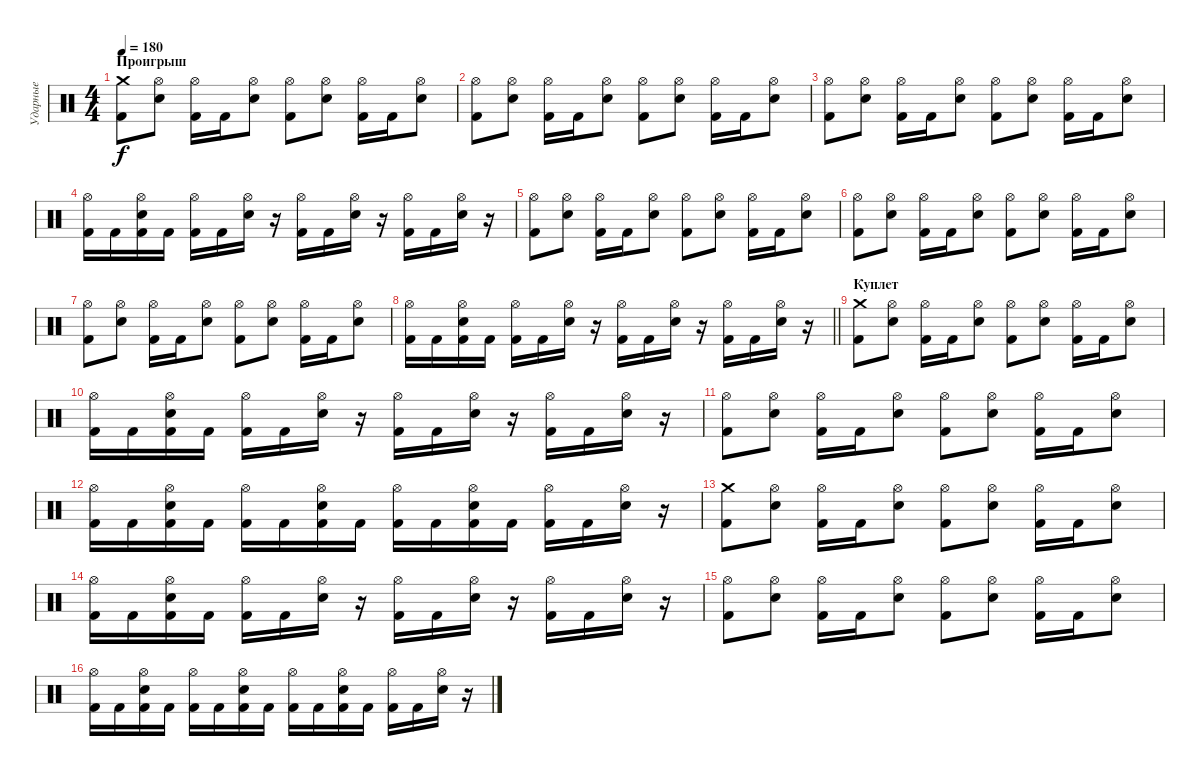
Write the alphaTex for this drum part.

\track ("Ударные" "Ударные") {instrument percussion}
\staff {score}
\articulation defaults
\ts (4 4)
\section ("" "Проигрыш")
\tempo 180
\clef neutral
\ks c
("Crash medium (hit)" "Kick (hit) 2").8{dy f} ("Hi-Hat (open)" "Electric Snare (hit)").8 ("Hi-Hat (open)" "Kick (hit) 2").16 "Kick (hit) 2".16 ("Hi-Hat (open)" "Electric Snare (hit)").8 ("Hi-Hat (open)" "Kick (hit) 2").8 ("Hi-Hat (open)" "Electric Snare (hit)").8 ("Hi-Hat (open)" "Kick (hit) 2").16 "Kick (hit) 2".16 ("Hi-Hat (open)" "Electric Snare (hit)").8 |
("Hi-Hat (open)" "Kick (hit) 2").8 ("Hi-Hat (open)" "Electric Snare (hit)").8 ("Hi-Hat (open)" "Kick (hit) 2").16 "Kick (hit) 2".16 ("Hi-Hat (open)" "Electric Snare (hit)").8 ("Hi-Hat (open)" "Kick (hit) 2").8 ("Hi-Hat (open)" "Electric Snare (hit)").8 ("Hi-Hat (open)" "Kick (hit) 2").16 "Kick (hit) 2".16 ("Hi-Hat (open)" "Electric Snare (hit)").8 |
("Hi-Hat (open)" "Kick (hit) 2").8 ("Hi-Hat (open)" "Electric Snare (hit)").8 ("Hi-Hat (open)" "Kick (hit) 2").16 "Kick (hit) 2".16 ("Hi-Hat (open)" "Electric Snare (hit)").8 ("Hi-Hat (open)" "Kick (hit) 2").8 ("Hi-Hat (open)" "Electric Snare (hit)").8 ("Hi-Hat (open)" "Kick (hit) 2").16 "Kick (hit) 2".16 ("Hi-Hat (open)" "Electric Snare (hit)").8 |
("Hi-Hat (open)" "Kick (hit) 2").16 "Kick (hit) 2".16 ("Hi-Hat (open)" "Electric Snare (hit)" "Kick (hit) 2").16 "Kick (hit) 2".16 ("Hi-Hat (open)" "Kick (hit) 2").16 "Kick (hit) 2".16 ("Hi-Hat (open)" "Electric Snare (hit)").16 r.16 ("Hi-Hat (open)" "Kick (hit) 2").16 "Kick (hit) 2".16 ("Hi-Hat (open)" "Electric Snare (hit)").16 r.16 ("Hi-Hat (open)" "Kick (hit) 2").16 "Kick (hit) 2".16 ("Hi-Hat (open)" "Electric Snare (hit)").16 r.16 |
("Hi-Hat (open)" "Kick (hit) 2").8 ("Hi-Hat (open)" "Electric Snare (hit)").8 ("Hi-Hat (open)" "Kick (hit) 2").16 "Kick (hit) 2".16 ("Hi-Hat (open)" "Electric Snare (hit)").8 ("Hi-Hat (open)" "Kick (hit) 2").8 ("Hi-Hat (open)" "Electric Snare (hit)").8 ("Hi-Hat (open)" "Kick (hit) 2").16 "Kick (hit) 2".16 ("Hi-Hat (open)" "Electric Snare (hit)").8 |
("Hi-Hat (open)" "Kick (hit) 2").8 ("Hi-Hat (open)" "Electric Snare (hit)").8 ("Hi-Hat (open)" "Kick (hit) 2").16 "Kick (hit) 2".16 ("Hi-Hat (open)" "Electric Snare (hit)").8 ("Hi-Hat (open)" "Kick (hit) 2").8 ("Hi-Hat (open)" "Electric Snare (hit)").8 ("Hi-Hat (open)" "Kick (hit) 2").16 "Kick (hit) 2".16 ("Hi-Hat (open)" "Electric Snare (hit)").8 |
("Hi-Hat (open)" "Kick (hit) 2").8 ("Hi-Hat (open)" "Electric Snare (hit)").8 ("Hi-Hat (open)" "Kick (hit) 2").16 "Kick (hit) 2".16 ("Hi-Hat (open)" "Electric Snare (hit)").8 ("Hi-Hat (open)" "Kick (hit) 2").8 ("Hi-Hat (open)" "Electric Snare (hit)").8 ("Hi-Hat (open)" "Kick (hit) 2").16 "Kick (hit) 2".16 ("Hi-Hat (open)" "Electric Snare (hit)").8 |
\barLineRight lightlight
("Hi-Hat (open)" "Kick (hit) 2").16 "Kick (hit) 2".16 ("Hi-Hat (open)" "Electric Snare (hit)" "Kick (hit) 2").16 "Kick (hit) 2".16 ("Hi-Hat (open)" "Kick (hit) 2").16 "Kick (hit) 2".16 ("Hi-Hat (open)" "Electric Snare (hit)").16 r.16 ("Hi-Hat (open)" "Kick (hit) 2").16 "Kick (hit) 2".16 ("Hi-Hat (open)" "Electric Snare (hit)").16 r.16 ("Hi-Hat (open)" "Kick (hit) 2").16 "Kick (hit) 2".16 ("Hi-Hat (open)" "Electric Snare (hit)").16 r.16 |
\section ("" "Куплет")
("Crash medium (hit)" "Kick (hit) 2").8 ("Hi-Hat (open)" "Electric Snare (hit)").8 ("Hi-Hat (open)" "Kick (hit) 2").16 "Kick (hit) 2".16 ("Hi-Hat (open)" "Electric Snare (hit)").8 ("Hi-Hat (open)" "Kick (hit) 2").8 ("Hi-Hat (open)" "Electric Snare (hit)").8 ("Hi-Hat (open)" "Kick (hit) 2").16 "Kick (hit) 2".16 ("Hi-Hat (open)" "Electric Snare (hit)").8 |
("Hi-Hat (open)" "Kick (hit) 2").16 "Kick (hit) 2".16 ("Hi-Hat (open)" "Electric Snare (hit)" "Kick (hit) 2").16 "Kick (hit) 2".16 ("Hi-Hat (open)" "Kick (hit) 2").16 "Kick (hit) 2".16 ("Hi-Hat (open)" "Electric Snare (hit)").16 r.16 ("Hi-Hat (open)" "Kick (hit) 2").16 "Kick (hit) 2".16 ("Hi-Hat (open)" "Electric Snare (hit)").16 r.16 ("Hi-Hat (open)" "Kick (hit) 2").16 "Kick (hit) 2".16 ("Hi-Hat (open)" "Electric Snare (hit)").16 r.16 |
("Hi-Hat (open)" "Kick (hit) 2").8 ("Hi-Hat (open)" "Electric Snare (hit)").8 ("Hi-Hat (open)" "Kick (hit) 2").16 "Kick (hit) 2".16 ("Hi-Hat (open)" "Electric Snare (hit)").8 ("Hi-Hat (open)" "Kick (hit) 2").8 ("Hi-Hat (open)" "Electric Snare (hit)").8 ("Hi-Hat (open)" "Kick (hit) 2").16 "Kick (hit) 2".16 ("Hi-Hat (open)" "Electric Snare (hit)").8 |
("Hi-Hat (open)" "Kick (hit) 2").16 "Kick (hit) 2".16 ("Hi-Hat (open)" "Electric Snare (hit)" "Kick (hit) 2").16 "Kick (hit) 2".16 ("Hi-Hat (open)" "Kick (hit) 2").16 "Kick (hit) 2".16 ("Hi-Hat (open)" "Electric Snare (hit)" "Kick (hit) 2").16 "Kick (hit) 2".16 ("Hi-Hat (open)" "Kick (hit) 2").16 "Kick (hit) 2".16 ("Hi-Hat (open)" "Electric Snare (hit)" "Kick (hit) 2").16 "Kick (hit) 2".16 ("Hi-Hat (open)" "Kick (hit) 2").16 "Kick (hit) 2".16 ("Hi-Hat (open)" "Electric Snare (hit)").16 r.16 |
("Crash medium (hit)" "Kick (hit) 2").8 ("Hi-Hat (open)" "Electric Snare (hit)").8 ("Hi-Hat (open)" "Kick (hit) 2").16 "Kick (hit) 2".16 ("Hi-Hat (open)" "Electric Snare (hit)").8 ("Hi-Hat (open)" "Kick (hit) 2").8 ("Hi-Hat (open)" "Electric Snare (hit)").8 ("Hi-Hat (open)" "Kick (hit) 2").16 "Kick (hit) 2".16 ("Hi-Hat (open)" "Electric Snare (hit)").8 |
("Hi-Hat (open)" "Kick (hit) 2").16 "Kick (hit) 2".16 ("Hi-Hat (open)" "Electric Snare (hit)" "Kick (hit) 2").16 "Kick (hit) 2".16 ("Hi-Hat (open)" "Kick (hit) 2").16 "Kick (hit) 2".16 ("Hi-Hat (open)" "Electric Snare (hit)").16 r.16 ("Hi-Hat (open)" "Kick (hit) 2").16 "Kick (hit) 2".16 ("Hi-Hat (open)" "Electric Snare (hit)").16 r.16 ("Hi-Hat (open)" "Kick (hit) 2").16 "Kick (hit) 2".16 ("Hi-Hat (open)" "Electric Snare (hit)").16 r.16 |
("Hi-Hat (open)" "Kick (hit) 2").8 ("Hi-Hat (open)" "Electric Snare (hit)").8 ("Hi-Hat (open)" "Kick (hit) 2").16 "Kick (hit) 2".16 ("Hi-Hat (open)" "Electric Snare (hit)").8 ("Hi-Hat (open)" "Kick (hit) 2").8 ("Hi-Hat (open)" "Electric Snare (hit)").8 ("Hi-Hat (open)" "Kick (hit) 2").16 "Kick (hit) 2".16 ("Hi-Hat (open)" "Electric Snare (hit)").8 |
("Hi-Hat (open)" "Kick (hit) 2").16 "Kick (hit) 2".16 ("Hi-Hat (open)" "Electric Snare (hit)" "Kick (hit) 2").16 "Kick (hit) 2".16 ("Hi-Hat (open)" "Kick (hit) 2").16 "Kick (hit) 2".16 ("Hi-Hat (open)" "Electric Snare (hit)" "Kick (hit) 2").16 "Kick (hit) 2".16 ("Hi-Hat (open)" "Kick (hit) 2").16 "Kick (hit) 2".16 ("Hi-Hat (open)" "Electric Snare (hit)" "Kick (hit) 2").16 "Kick (hit) 2".16 ("Hi-Hat (open)" "Kick (hit) 2").16 "Kick (hit) 2".16 ("Hi-Hat (open)" "Electric Snare (hit)").16 r.16
